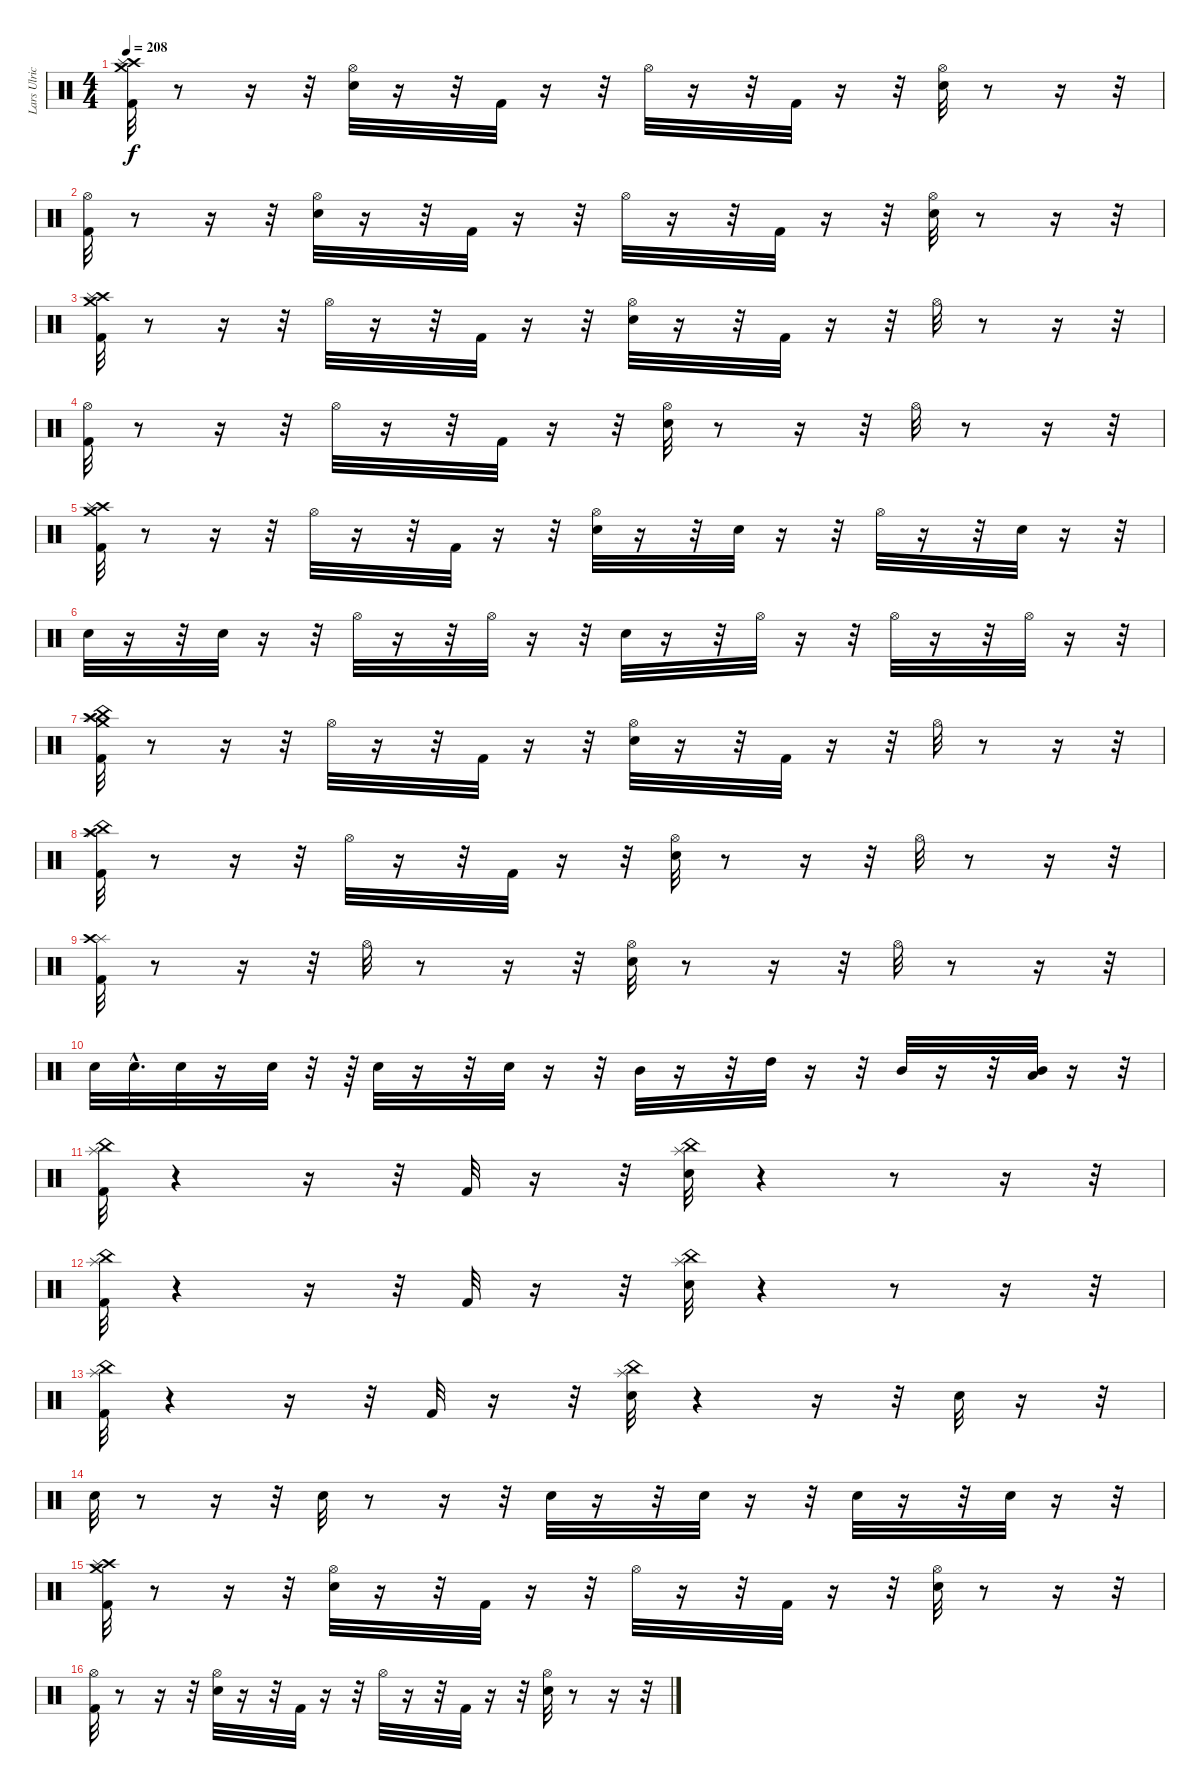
\track ("Lars Ulrich (Drums)" "Lars Ulric") {instrument percussion}
\staff {score}
\articulation defaults
\ts (4 4)
\tempo 208
\clef neutral
\ks c
("Kick (hit) 2" "Crash high (hit)" "Crash medium (hit)" "Splash (hit)").32{dy f} r.8 r.16 r.32 ("Snare (hit) 2" "Hi-Hat (open)").32 r.16 r.32 "Kick (hit) 2".32 r.16 r.32 "Hi-Hat (open)".32 r.16 r.32 "Kick (hit) 2".32 r.16 r.32 ("Snare (hit) 2" "Hi-Hat (open)").32 r.8 r.16 r.32 |
("Kick (hit) 2" "Hi-Hat (open)").32 r.8 r.16 r.32 ("Snare (hit) 2" "Hi-Hat (open)").32 r.16 r.32 "Kick (hit) 2".32 r.16 r.32 "Hi-Hat (open)".32 r.16 r.32 "Kick (hit) 2".32 r.16 r.32 ("Snare (hit) 2" "Hi-Hat (open)").32 r.8 r.16 r.32 |
("Crash high (hit)" "Crash medium (hit)" "Splash (hit)" "Kick (hit) 2").32 r.8 r.16 r.32 "Hi-Hat (open)".32 r.16 r.32 "Kick (hit) 2".32 r.16 r.32 ("Hi-Hat (open)" "Snare (hit) 2").32 r.16 r.32 "Kick (hit) 2".32 r.16 r.32 "Hi-Hat (open)".32 r.8 r.16 r.32 |
("Hi-Hat (open)" "Kick (hit) 2").32 r.8 r.16 r.32 "Hi-Hat (open)".32 r.16 r.32 "Kick (hit) 2".32 r.16 r.32 ("Hi-Hat (open)" "Snare (hit) 2").32 r.8 r.16 r.32 "Hi-Hat (open)".32 r.8 r.16 r.32 |
("Crash high (hit)" "Splash (hit)" "Crash medium (hit)" "Kick (hit) 2").32 r.8 r.16 r.32 "Hi-Hat (open)".32 r.16 r.32 "Kick (hit) 2".32 r.16 r.32 ("Hi-Hat (open)" "Snare (hit) 2").32 r.16 r.32 "Snare (hit) 2".32 r.16 r.32 "Hi-Hat (open)".32 r.16 r.32 "Snare (hit) 2".32 r.16 r.32 |
"Snare (hit) 2".32 r.16 r.32 "Snare (hit) 2".32 r.16 r.32 "Hi-Hat (open)".32 r.16 r.32 "Hi-Hat (open)".32 r.16 r.32 "Snare (hit) 2".32 r.16 r.32 "Hi-Hat (open)".32 r.16 r.32 "Hi-Hat (open)".32 r.16 r.32 "Hi-Hat (open)".32 r.16 r.32 |
("China (hit)" "Kick (hit) 2" "Crash high (hit)" "Splash (hit)" "Crash medium (hit)").32 r.8 r.16 r.32 "Hi-Hat (open)".32 r.16 r.32 "Kick (hit) 2".32 r.16 r.32 ("Hi-Hat (open)" "Snare (hit) 2").32 r.16 r.32 "Kick (hit) 2".32 r.16 r.32 "Hi-Hat (open)".32 r.8 r.16 r.32 |
("China (hit)" "Splash (hit)" "Crash high (hit)" "Kick (hit) 2").32 r.8 r.16 r.32 "Hi-Hat (open)".32 r.16 r.32 "Kick (hit) 2".32 r.16 r.32 ("Hi-Hat (open)" "Snare (hit) 2").32 r.8 r.16 r.32 "Hi-Hat (open)".32 r.8 r.16 r.32 |
("Kick (hit) 2" "Splash (hit)" "Crash high (hit)").32 r.8 r.16 r.32 "Hi-Hat (open)".32 r.8 r.16 r.32 ("Hi-Hat (open)" "Snare (hit) 2").32 r.8 r.16 r.32 "Hi-Hat (open)".32 r.8 r.16 r.32 |
"Snare (hit) 2".32 "Snare (hit) 2"{hac}.32{d} "Snare (hit) 2".32 r.16 "Snare (hit) 2".32 r.32 r.64 "Snare (hit) 2".32 r.16 r.32 "Snare (hit) 2".32 r.16 r.32 "Mid Tom (hit)".32 r.16 r.32 "High Tom (hit)".32 r.16 r.32 "Mid Tom (hit)".32 r.16 r.32 ("Mid Tom (hit)" "Low Tom (hit)").32 r.16 r.32 |
("Kick (hit) 2" "China (hit)" "Splash (hit)").32 r.4 r.16 r.32 "Kick (hit) 2".32 r.16 r.32 ("Snare (hit) 2" "China (hit)" "Splash (hit)").32 r.4 r.8 r.16 r.32 |
("Kick (hit) 2" "China (hit)" "Splash (hit)").32 r.4 r.16 r.32 "Kick (hit) 2".32 r.16 r.32 ("Snare (hit) 2" "China (hit)" "Splash (hit)").32 r.4 r.8 r.16 r.32 |
("Kick (hit) 2" "China (hit)" "Splash (hit)").32 r.4 r.16 r.32 "Kick (hit) 2".32 r.16 r.32 ("Snare (hit) 2" "China (hit)" "Splash (hit)").32 r.4 r.16 r.32 "Snare (hit) 2".32 r.16 r.32 |
"Snare (hit) 2".32 r.8 r.16 r.32 "Snare (hit) 2".32 r.8 r.16 r.32 "Snare (hit) 2".32 r.16 r.32 "Snare (hit) 2".32 r.16 r.32 "Snare (hit) 2".32 r.16 r.32 "Snare (hit) 2".32 r.16 r.32 |
("Kick (hit) 2" "Crash high (hit)" "Crash medium (hit)" "Splash (hit)").32 r.8 r.16 r.32 ("Snare (hit) 2" "Hi-Hat (open)").32 r.16 r.32 "Kick (hit) 2".32 r.16 r.32 "Hi-Hat (open)".32 r.16 r.32 "Kick (hit) 2".32 r.16 r.32 ("Snare (hit) 2" "Hi-Hat (open)").32 r.8 r.16 r.32 |
("Kick (hit) 2" "Hi-Hat (open)").32 r.8 r.16 r.32 ("Snare (hit) 2" "Hi-Hat (open)").32 r.16 r.32 "Kick (hit) 2".32 r.16 r.32 "Hi-Hat (open)".32 r.16 r.32 "Kick (hit) 2".32 r.16 r.32 ("Snare (hit) 2" "Hi-Hat (open)").32 r.8 r.16 r.32
